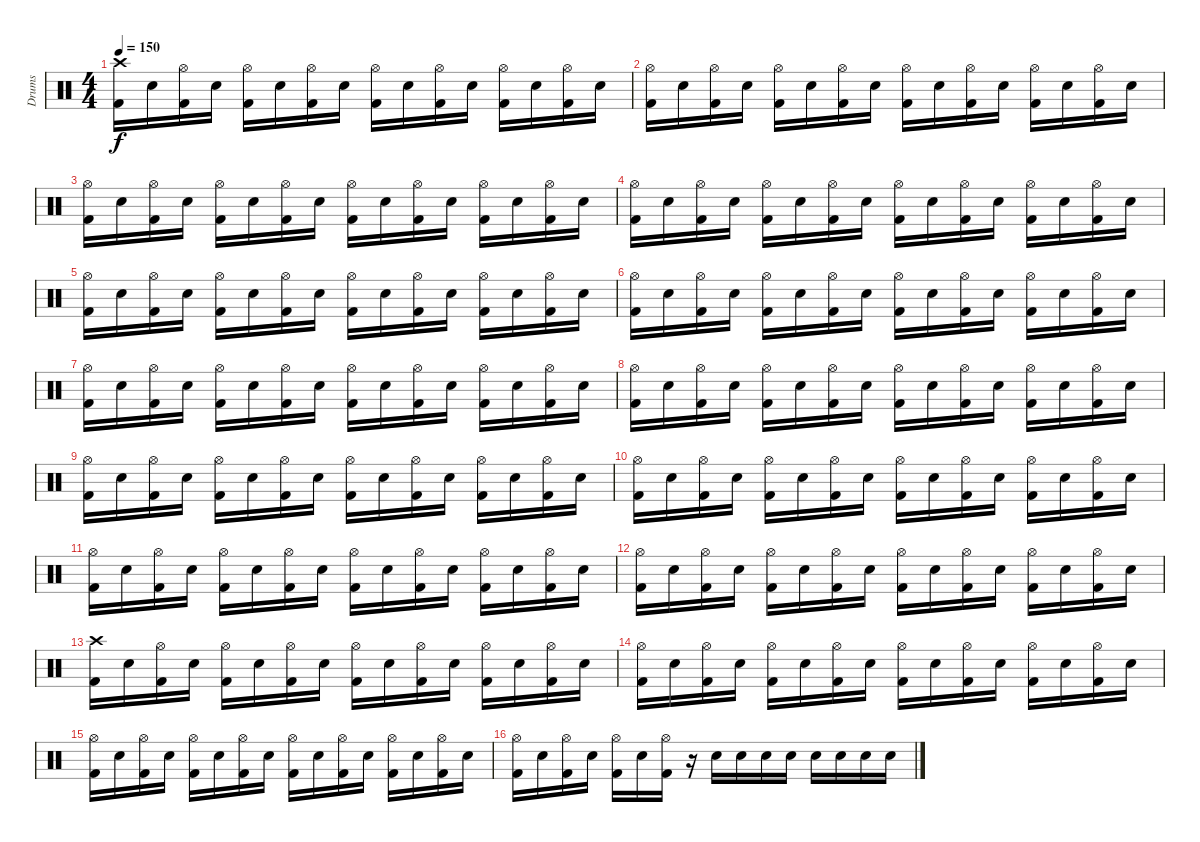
\track ("Drums" "Drums") {instrument percussion}
\staff {score}
\articulation defaults
\ts (4 4)
\tempo 150
\clef neutral
\ks c
("Kick (hit) 2" "Crash high (hit)").16{dy f} "Electric Snare (hit)".16 ("Kick (hit) 2" "Hi-Hat (open)").16 "Electric Snare (hit)".16 ("Kick (hit) 2" "Hi-Hat (open)").16 "Electric Snare (hit)".16 ("Kick (hit) 2" "Hi-Hat (open)").16 "Electric Snare (hit)".16 ("Kick (hit) 2" "Hi-Hat (open)").16 "Electric Snare (hit)".16 ("Kick (hit) 2" "Hi-Hat (open)").16 "Electric Snare (hit)".16 ("Kick (hit) 2" "Hi-Hat (open)").16 "Electric Snare (hit)".16 ("Kick (hit) 2" "Hi-Hat (open)").16 "Electric Snare (hit)".16 |
("Kick (hit) 2" "Hi-Hat (open)").16 "Electric Snare (hit)".16 ("Kick (hit) 2" "Hi-Hat (open)").16 "Electric Snare (hit)".16 ("Kick (hit) 2" "Hi-Hat (open)").16 "Electric Snare (hit)".16 ("Kick (hit) 2" "Hi-Hat (open)").16 "Electric Snare (hit)".16 ("Kick (hit) 2" "Hi-Hat (open)").16 "Electric Snare (hit)".16 ("Kick (hit) 2" "Hi-Hat (open)").16 "Electric Snare (hit)".16 ("Kick (hit) 2" "Hi-Hat (open)").16 "Electric Snare (hit)".16 ("Kick (hit) 2" "Hi-Hat (open)").16 "Electric Snare (hit)".16 |
("Kick (hit) 2" "Hi-Hat (open)").16 "Electric Snare (hit)".16 ("Kick (hit) 2" "Hi-Hat (open)").16 "Electric Snare (hit)".16 ("Kick (hit) 2" "Hi-Hat (open)").16 "Electric Snare (hit)".16 ("Kick (hit) 2" "Hi-Hat (open)").16 "Electric Snare (hit)".16 ("Kick (hit) 2" "Hi-Hat (open)").16 "Electric Snare (hit)".16 ("Kick (hit) 2" "Hi-Hat (open)").16 "Electric Snare (hit)".16 ("Kick (hit) 2" "Hi-Hat (open)").16 "Electric Snare (hit)".16 ("Kick (hit) 2" "Hi-Hat (open)").16 "Electric Snare (hit)".16 |
("Kick (hit) 2" "Hi-Hat (open)").16 "Electric Snare (hit)".16 ("Kick (hit) 2" "Hi-Hat (open)").16 "Electric Snare (hit)".16 ("Kick (hit) 2" "Hi-Hat (open)").16 "Electric Snare (hit)".16 ("Kick (hit) 2" "Hi-Hat (open)").16 "Electric Snare (hit)".16 ("Kick (hit) 2" "Hi-Hat (open)").16 "Electric Snare (hit)".16 ("Kick (hit) 2" "Hi-Hat (open)").16 "Electric Snare (hit)".16 ("Kick (hit) 2" "Hi-Hat (open)").16 "Electric Snare (hit)".16 ("Kick (hit) 2" "Hi-Hat (open)").16 "Electric Snare (hit)".16 |
("Kick (hit) 2" "Hi-Hat (open)").16 "Electric Snare (hit)".16 ("Kick (hit) 2" "Hi-Hat (open)").16 "Electric Snare (hit)".16 ("Kick (hit) 2" "Hi-Hat (open)").16 "Electric Snare (hit)".16 ("Kick (hit) 2" "Hi-Hat (open)").16 "Electric Snare (hit)".16 ("Kick (hit) 2" "Hi-Hat (open)").16 "Electric Snare (hit)".16 ("Kick (hit) 2" "Hi-Hat (open)").16 "Electric Snare (hit)".16 ("Kick (hit) 2" "Hi-Hat (open)").16 "Electric Snare (hit)".16 ("Kick (hit) 2" "Hi-Hat (open)").16 "Electric Snare (hit)".16 |
("Kick (hit) 2" "Hi-Hat (open)").16 "Electric Snare (hit)".16 ("Kick (hit) 2" "Hi-Hat (open)").16 "Electric Snare (hit)".16 ("Kick (hit) 2" "Hi-Hat (open)").16 "Electric Snare (hit)".16 ("Kick (hit) 2" "Hi-Hat (open)").16 "Electric Snare (hit)".16 ("Kick (hit) 2" "Hi-Hat (open)").16 "Electric Snare (hit)".16 ("Kick (hit) 2" "Hi-Hat (open)").16 "Electric Snare (hit)".16 ("Kick (hit) 2" "Hi-Hat (open)").16 "Electric Snare (hit)".16 ("Kick (hit) 2" "Hi-Hat (open)").16 "Electric Snare (hit)".16 |
("Kick (hit) 2" "Hi-Hat (open)").16 "Electric Snare (hit)".16 ("Kick (hit) 2" "Hi-Hat (open)").16 "Electric Snare (hit)".16 ("Kick (hit) 2" "Hi-Hat (open)").16 "Electric Snare (hit)".16 ("Kick (hit) 2" "Hi-Hat (open)").16 "Electric Snare (hit)".16 ("Kick (hit) 2" "Hi-Hat (open)").16 "Electric Snare (hit)".16 ("Kick (hit) 2" "Hi-Hat (open)").16 "Electric Snare (hit)".16 ("Kick (hit) 2" "Hi-Hat (open)").16 "Electric Snare (hit)".16 ("Kick (hit) 2" "Hi-Hat (open)").16 "Electric Snare (hit)".16 |
("Kick (hit) 2" "Hi-Hat (open)").16 "Electric Snare (hit)".16 ("Kick (hit) 2" "Hi-Hat (open)").16 "Electric Snare (hit)".16 ("Kick (hit) 2" "Hi-Hat (open)").16 "Electric Snare (hit)".16 ("Kick (hit) 2" "Hi-Hat (open)").16 "Electric Snare (hit)".16 ("Kick (hit) 2" "Hi-Hat (open)").16 "Electric Snare (hit)".16 ("Kick (hit) 2" "Hi-Hat (open)").16 "Electric Snare (hit)".16 ("Kick (hit) 2" "Hi-Hat (open)").16 "Electric Snare (hit)".16 ("Kick (hit) 2" "Hi-Hat (open)").16 "Electric Snare (hit)".16 |
("Kick (hit) 2" "Hi-Hat (open)").16 "Electric Snare (hit)".16 ("Kick (hit) 2" "Hi-Hat (open)").16 "Electric Snare (hit)".16 ("Kick (hit) 2" "Hi-Hat (open)").16 "Electric Snare (hit)".16 ("Kick (hit) 2" "Hi-Hat (open)").16 "Electric Snare (hit)".16 ("Kick (hit) 2" "Hi-Hat (open)").16 "Electric Snare (hit)".16 ("Kick (hit) 2" "Hi-Hat (open)").16 "Electric Snare (hit)".16 ("Kick (hit) 2" "Hi-Hat (open)").16 "Electric Snare (hit)".16 ("Kick (hit) 2" "Hi-Hat (open)").16 "Electric Snare (hit)".16 |
("Kick (hit) 2" "Hi-Hat (open)").16 "Electric Snare (hit)".16 ("Kick (hit) 2" "Hi-Hat (open)").16 "Electric Snare (hit)".16 ("Kick (hit) 2" "Hi-Hat (open)").16 "Electric Snare (hit)".16 ("Kick (hit) 2" "Hi-Hat (open)").16 "Electric Snare (hit)".16 ("Kick (hit) 2" "Hi-Hat (open)").16 "Electric Snare (hit)".16 ("Kick (hit) 2" "Hi-Hat (open)").16 "Electric Snare (hit)".16 ("Kick (hit) 2" "Hi-Hat (open)").16 "Electric Snare (hit)".16 ("Kick (hit) 2" "Hi-Hat (open)").16 "Electric Snare (hit)".16 |
("Kick (hit) 2" "Hi-Hat (open)").16 "Electric Snare (hit)".16 ("Kick (hit) 2" "Hi-Hat (open)").16 "Electric Snare (hit)".16 ("Kick (hit) 2" "Hi-Hat (open)").16 "Electric Snare (hit)".16 ("Kick (hit) 2" "Hi-Hat (open)").16 "Electric Snare (hit)".16 ("Kick (hit) 2" "Hi-Hat (open)").16 "Electric Snare (hit)".16 ("Kick (hit) 2" "Hi-Hat (open)").16 "Electric Snare (hit)".16 ("Kick (hit) 2" "Hi-Hat (open)").16 "Electric Snare (hit)".16 ("Kick (hit) 2" "Hi-Hat (open)").16 "Electric Snare (hit)".16 |
("Kick (hit) 2" "Hi-Hat (open)").16 "Electric Snare (hit)".16 ("Kick (hit) 2" "Hi-Hat (open)").16 "Electric Snare (hit)".16 ("Kick (hit) 2" "Hi-Hat (open)").16 "Electric Snare (hit)".16 ("Kick (hit) 2" "Hi-Hat (open)").16 "Electric Snare (hit)".16 ("Kick (hit) 2" "Hi-Hat (open)").16 "Electric Snare (hit)".16 ("Kick (hit) 2" "Hi-Hat (open)").16 "Electric Snare (hit)".16 ("Kick (hit) 2" "Hi-Hat (open)").16 "Electric Snare (hit)".16 ("Kick (hit) 2" "Hi-Hat (open)").16 "Electric Snare (hit)".16 |
("Kick (hit) 2" "Crash high (hit)").16 "Electric Snare (hit)".16 ("Kick (hit) 2" "Hi-Hat (open)").16 "Electric Snare (hit)".16 ("Kick (hit) 2" "Hi-Hat (open)").16 "Electric Snare (hit)".16 ("Kick (hit) 2" "Hi-Hat (open)").16 "Electric Snare (hit)".16 ("Kick (hit) 2" "Hi-Hat (open)").16 "Electric Snare (hit)".16 ("Kick (hit) 2" "Hi-Hat (open)").16 "Electric Snare (hit)".16 ("Kick (hit) 2" "Hi-Hat (open)").16 "Electric Snare (hit)".16 ("Kick (hit) 2" "Hi-Hat (open)").16 "Electric Snare (hit)".16 |
("Kick (hit) 2" "Hi-Hat (open)").16 "Electric Snare (hit)".16 ("Kick (hit) 2" "Hi-Hat (open)").16 "Electric Snare (hit)".16 ("Kick (hit) 2" "Hi-Hat (open)").16 "Electric Snare (hit)".16 ("Kick (hit) 2" "Hi-Hat (open)").16 "Electric Snare (hit)".16 ("Kick (hit) 2" "Hi-Hat (open)").16 "Electric Snare (hit)".16 ("Kick (hit) 2" "Hi-Hat (open)").16 "Electric Snare (hit)".16 ("Kick (hit) 2" "Hi-Hat (open)").16 "Electric Snare (hit)".16 ("Kick (hit) 2" "Hi-Hat (open)").16 "Electric Snare (hit)".16 |
("Kick (hit) 2" "Hi-Hat (open)").16 "Electric Snare (hit)".16 ("Kick (hit) 2" "Hi-Hat (open)").16 "Electric Snare (hit)".16 ("Kick (hit) 2" "Hi-Hat (open)").16 "Electric Snare (hit)".16 ("Kick (hit) 2" "Hi-Hat (open)").16 "Electric Snare (hit)".16 ("Kick (hit) 2" "Hi-Hat (open)").16 "Electric Snare (hit)".16 ("Kick (hit) 2" "Hi-Hat (open)").16 "Electric Snare (hit)".16 ("Kick (hit) 2" "Hi-Hat (open)").16 "Electric Snare (hit)".16 ("Kick (hit) 2" "Hi-Hat (open)").16 "Electric Snare (hit)".16 |
("Kick (hit) 2" "Hi-Hat (open)").16 "Electric Snare (hit)".16 ("Kick (hit) 2" "Hi-Hat (open)").16 "Electric Snare (hit)".16 ("Kick (hit) 2" "Hi-Hat (open)").16 "Electric Snare (hit)".16 ("Kick (hit) 2" "Hi-Hat (open)").16 r.16 "Electric Snare (hit)".16 "Electric Snare (hit)".16 "Electric Snare (hit)".16 "Electric Snare (hit)".16 "Electric Snare (hit)".16 "Electric Snare (hit)".16 "Electric Snare (hit)".16 "Electric Snare (hit)".16
